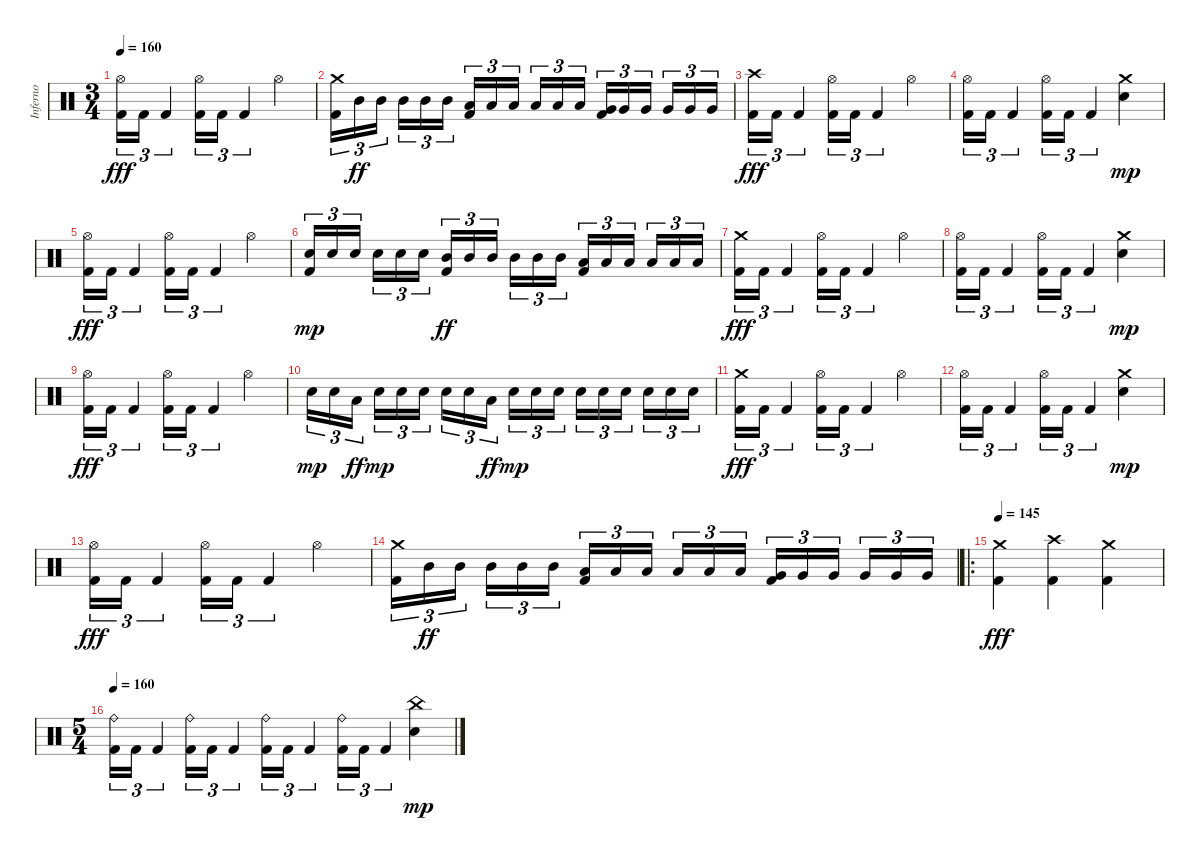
\track ("Inferno" "Inferno") {instrument percussion}
\staff {score}
\articulation defaults
\ts (3 4)
\tempo 160
\clef neutral
\ks c
("Kick (hit) 2" "Hi-Hat (open)").16{tu (3 2) dy fff} "Kick (hit) 2".16{tu (3 2)} "Kick (hit) 2".4{tu (3 2)} ("Kick (hit) 2" "Hi-Hat (open)").16{tu (3 2)} "Kick (hit) 2".16{tu (3 2)} "Kick (hit) 2".4{tu (3 2)} "Hi-Hat (open)".4 |
("Kick (hit) 2" "Crash medium (hit)").16{tu (3 2)} "Mid Tom (hit)".16{tu (3 2) dy ff} "Mid Tom (hit)".16{tu (3 2) beam splitsecondary} "Mid Tom (hit)".16{tu (3 2)} "Mid Tom (hit)".16{tu (3 2)} "Mid Tom (hit)".16{tu (3 2)} ("Kick (hit) 2" "Low Tom (hit)").16{tu (3 2)} "Low Tom (hit)".16{tu (3 2)} "Low Tom (hit)".16{tu (3 2) beam splitsecondary} "Low Tom (hit)".16{tu (3 2)} "Low Tom (hit)".16{tu (3 2)} "Low Tom (hit)".16{tu (3 2)} ("Kick (hit) 2" "Very Low Tom (hit)").16{tu (3 2)} "Very Low Tom (hit)".16{tu (3 2)} "Very Low Tom (hit)".16{tu (3 2) beam splitsecondary} "Very Low Tom (hit)".16{tu (3 2)} "Very Low Tom (hit)".16{tu (3 2)} "Very Low Tom (hit)".16{tu (3 2)} |
("Kick (hit) 2" "Crash high (hit)").16{tu (3 2) dy fff} "Kick (hit) 2".16{tu (3 2)} "Kick (hit) 2".4{tu (3 2)} ("Kick (hit) 2" "Hi-Hat (open)").16{tu (3 2)} "Kick (hit) 2".16{tu (3 2)} "Kick (hit) 2".4{tu (3 2)} "Hi-Hat (open)".4 |
("Kick (hit) 2" "Hi-Hat (open)").16{tu (3 2)} "Kick (hit) 2".16{tu (3 2)} "Kick (hit) 2".4{tu (3 2)} ("Kick (hit) 2" "Hi-Hat (open)").16{tu (3 2)} "Kick (hit) 2".16{tu (3 2)} "Kick (hit) 2".4{tu (3 2)} ("Crash medium (hit)" "Electric Snare (hit)").4{dy mp} |
("Kick (hit) 2" "Hi-Hat (open)").16{tu (3 2) dy fff} "Kick (hit) 2".16{tu (3 2)} "Kick (hit) 2".4{tu (3 2)} ("Kick (hit) 2" "Hi-Hat (open)").16{tu (3 2)} "Kick (hit) 2".16{tu (3 2)} "Kick (hit) 2".4{tu (3 2)} "Hi-Hat (open)".4 |
("Kick (hit) 2" "Electric Snare (hit)").16{tu (3 2) dy mp} "Electric Snare (hit)".16{tu (3 2)} "Electric Snare (hit)".16{tu (3 2) beam splitsecondary} "Electric Snare (hit)".16{tu (3 2)} "Electric Snare (hit)".16{tu (3 2)} "Electric Snare (hit)".16{tu (3 2)} ("Kick (hit) 2" "Mid Tom (hit)").16{tu (3 2) dy ff} "Mid Tom (hit)".16{tu (3 2)} "Mid Tom (hit)".16{tu (3 2) beam splitsecondary} "Mid Tom (hit)".16{tu (3 2)} "Mid Tom (hit)".16{tu (3 2)} "Mid Tom (hit)".16{tu (3 2)} ("Kick (hit) 2" "Low Tom (hit)").16{tu (3 2)} "Low Tom (hit)".16{tu (3 2)} "Low Tom (hit)".16{tu (3 2) beam splitsecondary} "Low Tom (hit)".16{tu (3 2)} "Low Tom (hit)".16{tu (3 2)} "Low Tom (hit)".16{tu (3 2)} |
("Kick (hit) 2" "Crash medium (hit)").16{tu (3 2) dy fff} "Kick (hit) 2".16{tu (3 2)} "Kick (hit) 2".4{tu (3 2)} ("Kick (hit) 2" "Hi-Hat (open)").16{tu (3 2)} "Kick (hit) 2".16{tu (3 2)} "Kick (hit) 2".4{tu (3 2)} "Hi-Hat (open)".4 |
("Kick (hit) 2" "Hi-Hat (open)").16{tu (3 2)} "Kick (hit) 2".16{tu (3 2)} "Kick (hit) 2".4{tu (3 2)} ("Kick (hit) 2" "Hi-Hat (open)").16{tu (3 2)} "Kick (hit) 2".16{tu (3 2)} "Kick (hit) 2".4{tu (3 2)} ("Crash medium (hit)" "Electric Snare (hit)").4{dy mp} |
("Kick (hit) 2" "Hi-Hat (open)").16{tu (3 2) dy fff} "Kick (hit) 2".16{tu (3 2)} "Kick (hit) 2".4{tu (3 2)} ("Kick (hit) 2" "Hi-Hat (open)").16{tu (3 2)} "Kick (hit) 2".16{tu (3 2)} "Kick (hit) 2".4{tu (3 2)} "Hi-Hat (open)".4 |
"Electric Snare (hit)".16{tu (3 2) dy mp} "Electric Snare (hit)".16{tu (3 2)} "Low Tom (hit)".16{tu (3 2) dy ff beam splitsecondary} "Electric Snare (hit)".16{tu (3 2) dy mp} "Electric Snare (hit)".16{tu (3 2)} "Electric Snare (hit)".16{tu (3 2)} "Electric Snare (hit)".16{tu (3 2)} "Electric Snare (hit)".16{tu (3 2)} "Low Tom (hit)".16{tu (3 2) dy ff beam splitsecondary} "Electric Snare (hit)".16{tu (3 2) dy mp} "Electric Snare (hit)".16{tu (3 2)} "Electric Snare (hit)".16{tu (3 2)} "Electric Snare (hit)".16{tu (3 2)} "Electric Snare (hit)".16{tu (3 2)} "Electric Snare (hit)".16{tu (3 2) beam splitsecondary} "Electric Snare (hit)".16{tu (3 2)} "Electric Snare (hit)".16{tu (3 2)} "Electric Snare (hit)".16{tu (3 2)} |
("Kick (hit) 2" "Crash medium (hit)").16{tu (3 2) dy fff} "Kick (hit) 2".16{tu (3 2)} "Kick (hit) 2".4{tu (3 2)} ("Kick (hit) 2" "Hi-Hat (open)").16{tu (3 2)} "Kick (hit) 2".16{tu (3 2)} "Kick (hit) 2".4{tu (3 2)} "Hi-Hat (open)".4 |
("Kick (hit) 2" "Hi-Hat (open)").16{tu (3 2)} "Kick (hit) 2".16{tu (3 2)} "Kick (hit) 2".4{tu (3 2)} ("Kick (hit) 2" "Hi-Hat (open)").16{tu (3 2)} "Kick (hit) 2".16{tu (3 2)} "Kick (hit) 2".4{tu (3 2)} ("Crash medium (hit)" "Electric Snare (hit)").4{dy mp} |
("Kick (hit) 2" "Hi-Hat (open)").16{tu (3 2) dy fff} "Kick (hit) 2".16{tu (3 2)} "Kick (hit) 2".4{tu (3 2)} ("Kick (hit) 2" "Hi-Hat (open)").16{tu (3 2)} "Kick (hit) 2".16{tu (3 2)} "Kick (hit) 2".4{tu (3 2)} "Hi-Hat (open)".4 |
("Kick (hit) 2" "Crash medium (hit)").16{tu (3 2)} "Mid Tom (hit)".16{tu (3 2) dy ff} "Mid Tom (hit)".16{tu (3 2) beam splitsecondary} "Mid Tom (hit)".16{tu (3 2)} "Mid Tom (hit)".16{tu (3 2)} "Mid Tom (hit)".16{tu (3 2)} ("Kick (hit) 2" "Low Tom (hit)").16{tu (3 2)} "Low Tom (hit)".16{tu (3 2)} "Low Tom (hit)".16{tu (3 2) beam splitsecondary} "Low Tom (hit)".16{tu (3 2)} "Low Tom (hit)".16{tu (3 2)} "Low Tom (hit)".16{tu (3 2)} ("Kick (hit) 2" "Very Low Tom (hit)").16{tu (3 2)} "Very Low Tom (hit)".16{tu (3 2)} "Very Low Tom (hit)".16{tu (3 2) beam splitsecondary} "Very Low Tom (hit)".16{tu (3 2)} "Very Low Tom (hit)".16{tu (3 2)} "Very Low Tom (hit)".16{tu (3 2)} |
\ro
\tempo 145
("Kick (hit) 2" "Crash medium (hit)").4{dy fff} ("Kick (hit) 2" "Crash high (hit)").4 ("Kick (hit) 2" "Crash medium (hit)").4 |
\ts (5 4)
\tempo 160
("Kick (hit) 2" "Ride (bell)").16{tu (3 2)} "Kick (hit) 2".16{tu (3 2)} "Kick (hit) 2".4{tu (3 2)} ("Kick (hit) 2" "Ride (bell)").16{tu (3 2)} "Kick (hit) 2".16{tu (3 2)} "Kick (hit) 2".4{tu (3 2)} ("Kick (hit) 2" "Ride (bell)").16{tu (3 2)} "Kick (hit) 2".16{tu (3 2)} "Kick (hit) 2".4{tu (3 2)} ("Kick (hit) 2" "Ride (bell)").16{tu (3 2)} "Kick (hit) 2".16{tu (3 2)} "Kick (hit) 2".4{tu (3 2)} ("China (hit)" "Electric Snare (hit)").4{dy mp}
